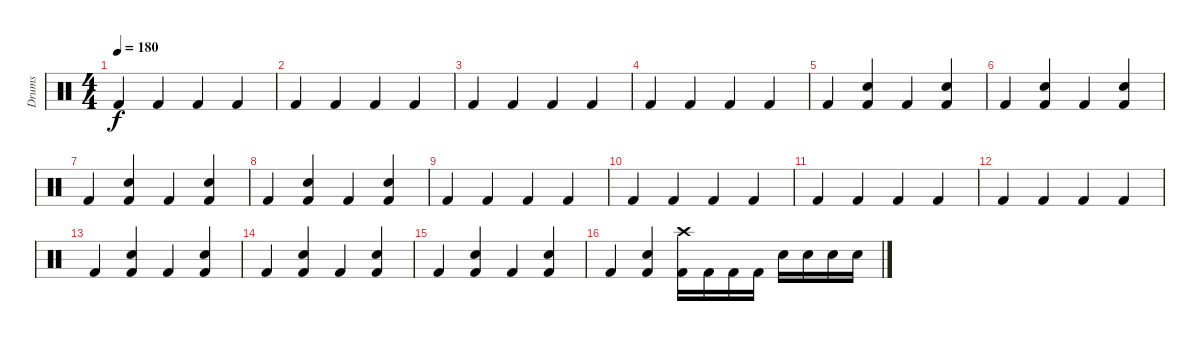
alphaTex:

\track ("Drums" "Drums") {instrument percussion}
\staff {score}
\articulation defaults
\ts (4 4)
\tempo 180
\clef neutral
\ks c "Kick (hit) 2".4{dy f} "Kick (hit) 2".4 "Kick (hit) 2".4 "Kick (hit) 2".4
|
"Kick (hit) 2".4 "Kick (hit) 2".4 "Kick (hit) 2".4 "Kick (hit) 2".4 |
"Kick (hit) 2".4 "Kick (hit) 2".4 "Kick (hit) 2".4 "Kick (hit) 2".4 |
"Kick (hit) 2".4 "Kick (hit) 2".4 "Kick (hit) 2".4 "Kick (hit) 2".4 |
"Kick (hit) 2".4 ("Kick (hit) 2" "Snare (hit) 2").4 "Kick (hit) 2".4 ("Snare (hit) 2" "Kick (hit) 2").4 |
"Kick (hit) 2".4 ("Kick (hit) 2" "Snare (hit) 2").4 "Kick (hit) 2".4 ("Snare (hit) 2" "Kick (hit) 2").4 |
"Kick (hit) 2".4 ("Kick (hit) 2" "Snare (hit) 2").4 "Kick (hit) 2".4 ("Snare (hit) 2" "Kick (hit) 2").4 |
"Kick (hit) 2".4 ("Kick (hit) 2" "Snare (hit) 2").4 "Kick (hit) 2".4 ("Snare (hit) 2" "Kick (hit) 2").4 |
"Kick (hit) 2".4 "Kick (hit) 2".4 "Kick (hit) 2".4 "Kick (hit) 2".4 |
"Kick (hit) 2".4 "Kick (hit) 2".4 "Kick (hit) 2".4 "Kick (hit) 2".4 |
"Kick (hit) 2".4 "Kick (hit) 2".4 "Kick (hit) 2".4 "Kick (hit) 2".4 |
"Kick (hit) 2".4 "Kick (hit) 2".4 "Kick (hit) 2".4 "Kick (hit) 2".4 |
"Kick (hit) 2".4 ("Kick (hit) 2" "Snare (hit) 2").4 "Kick (hit) 2".4 ("Snare (hit) 2" "Kick (hit) 2").4 |
"Kick (hit) 2".4 ("Kick (hit) 2" "Snare (hit) 2").4 "Kick (hit) 2".4 ("Snare (hit) 2" "Kick (hit) 2").4 |
"Kick (hit) 2".4 ("Kick (hit) 2" "Snare (hit) 2").4 "Kick (hit) 2".4 ("Snare (hit) 2" "Kick (hit) 2").4 |
"Kick (hit) 2".4 ("Kick (hit) 2" "Snare (hit) 2").4 ("Crash high (hit)" "Kick (hit) 2").16 "Kick (hit) 2".16 "Kick (hit) 2".16 "Kick (hit) 2".16 "Snare (hit) 2".16 "Snare (hit) 2".16 "Snare (hit) 2".16 "Snare (hit) 2".16
